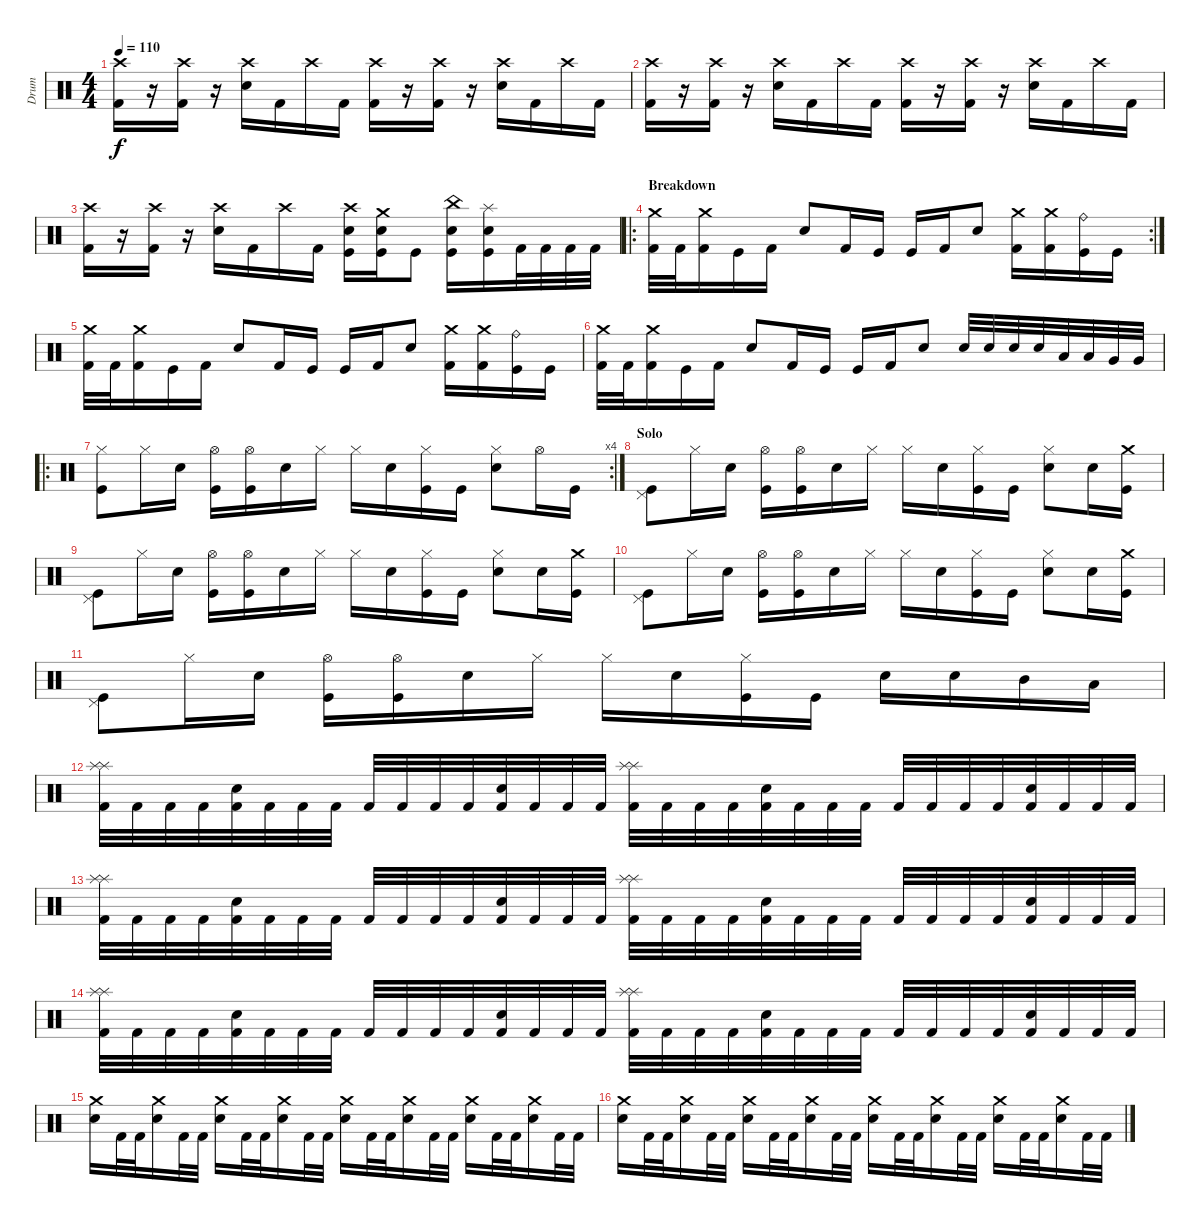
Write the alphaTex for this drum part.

\track ("Drum" "Drum") {instrument percussion}
\staff {score}
\articulation defaults
\ts (4 4)
\tempo 110
\clef neutral
\ks c
("Crash high (hit)" "Kick (hit) 2").16{dy f} r.16 ("Crash high (hit)" "Kick (hit) 2").16 r.16 ("Crash high (hit)" "Snare (hit) 2").16 "Kick (hit) 2".16 "Crash high (hit)".16 "Kick (hit) 2".16 ("Crash high (hit)" "Kick (hit) 2").16 r.16 ("Crash high (hit)" "Kick (hit) 2").16 r.16 ("Crash high (hit)" "Snare (hit) 2").16 "Kick (hit) 2".16 "Crash high (hit)".16 "Kick (hit) 2".16 |
("Crash high (hit)" "Kick (hit) 2").16 r.16 ("Crash high (hit)" "Kick (hit) 2").16 r.16 ("Crash high (hit)" "Snare (hit) 2").16 "Kick (hit) 2".16 "Crash high (hit)".16 "Kick (hit) 2".16 ("Crash high (hit)" "Kick (hit) 2").16 r.16 ("Crash high (hit)" "Kick (hit) 2").16 r.16 ("Crash high (hit)" "Snare (hit) 2").16 "Kick (hit) 2".16 "Crash high (hit)".16 "Kick (hit) 2".16 |
("Crash high (hit)" "Kick (hit) 2").16 r.16 ("Crash high (hit)" "Kick (hit) 2").16 r.16 ("Crash high (hit)" "Snare (hit) 2").16 "Kick (hit) 2".16 "Crash high (hit)".16 "Kick (hit) 2".16 ("Crash high (hit)" "Electric Snare (hit)" "Kick (hit)").16 ("Crash medium (hit)" "Electric Snare (hit)" "Kick (hit)").16 "Kick (hit)".8 ("China (hit)" "Electric Snare (hit)" "Kick (hit)").16 ("Splash (hit)" "Electric Snare (hit)" "Kick (hit)").16 "Kick (hit) 2".32 "Kick (hit) 2".32 "Kick (hit) 2".32 "Kick (hit) 2".32 |
\ro
\rc 2
\section ("" "Breakdown")
("Crash medium (hit)" "Kick (hit) 2").32 "Kick (hit) 2".32 ("Crash medium (hit)" "Kick (hit) 2").16 "Kick (hit)".16 "Kick (hit) 2".16 "Snare (hit) 2".8 "Kick (hit) 2".16 "Kick (hit)".16 "Kick (hit)".16 "Kick (hit) 2".16 "Snare (hit) 2".8 ("Crash medium (hit)" "Kick (hit) 2").16 ("Crash medium (hit)" "Kick (hit) 2").16 ("Ride (bell)" "Kick (hit)").16 "Kick (hit)".16 |
("Crash medium (hit)" "Kick (hit) 2").32 "Kick (hit) 2".32 ("Crash medium (hit)" "Kick (hit) 2").16 "Kick (hit)".16 "Kick (hit) 2".16 "Snare (hit) 2".8 "Kick (hit) 2".16 "Kick (hit)".16 "Kick (hit)".16 "Kick (hit) 2".16 "Snare (hit) 2".8 ("Crash medium (hit)" "Kick (hit) 2").16 ("Crash medium (hit)" "Kick (hit) 2").16 ("Ride (bell)" "Kick (hit)").16 "Kick (hit)".16 |
("Crash medium (hit)" "Kick (hit) 2").32 "Kick (hit) 2".32 ("Crash medium (hit)" "Kick (hit) 2").16 "Kick (hit)".16 "Kick (hit) 2".16 "Snare (hit) 2".8 "Kick (hit) 2".16 "Kick (hit)".16 "Kick (hit)".16 "Kick (hit) 2".16 "Snare (hit) 2".8 "Electric Snare (hit)".32 "Electric Snare (hit)".32 "Snare (hit) 2".32 "Snare (hit) 2".32 "Low Tom (hit)".32 "Low Tom (hit)".32 "Very Low Tom (hit)".32 "Very Low Tom (hit)".32 |
\ro
\rc 4
("Hi-Hat (closed)" "Kick (hit)").8 "Hi-Hat (closed)".16 "Electric Snare (hit)".16 ("Hi-Hat (open)" "Kick (hit)").16 ("Hi-Hat (open)" "Kick (hit)").16 "Electric Snare (hit)".16 "Hi-Hat (closed)".16 "Hi-Hat (closed)".16 "Electric Snare (hit)".16 ("Hi-Hat (closed)" "Kick (hit)").16 "Kick (hit)".16 ("Hi-Hat (closed)" "Electric Snare (hit)").8 "Hi-Hat (open)".16 "Kick (hit)".16 |
\section ("" "Solo")
("Pedal Hi-Hat (hit)" "Kick (hit)").8 "Hi-Hat (closed)".16 "Electric Snare (hit)".16 ("Hi-Hat (open)" "Kick (hit)").16 ("Hi-Hat (open)" "Kick (hit)").16 "Electric Snare (hit)".16 "Hi-Hat (closed)".16 "Hi-Hat (closed)".16 "Electric Snare (hit)".16 ("Hi-Hat (closed)" "Kick (hit)").16 "Kick (hit)".16 ("Hi-Hat (closed)" "Electric Snare (hit)").8 "Snare (hit) 2".16 ("Crash medium (hit)" "Kick (hit)").16 |
("Pedal Hi-Hat (hit)" "Kick (hit)").8 "Hi-Hat (closed)".16 "Electric Snare (hit)".16 ("Hi-Hat (open)" "Kick (hit)").16 ("Hi-Hat (open)" "Kick (hit)").16 "Electric Snare (hit)".16 "Hi-Hat (closed)".16 "Hi-Hat (closed)".16 "Electric Snare (hit)".16 ("Hi-Hat (closed)" "Kick (hit)").16 "Kick (hit)".16 ("Hi-Hat (closed)" "Electric Snare (hit)").8 "Snare (hit) 2".16 ("Crash medium (hit)" "Kick (hit)").16 |
("Pedal Hi-Hat (hit)" "Kick (hit)").8 "Hi-Hat (closed)".16 "Electric Snare (hit)".16 ("Hi-Hat (open)" "Kick (hit)").16 ("Hi-Hat (open)" "Kick (hit)").16 "Electric Snare (hit)".16 "Hi-Hat (closed)".16 "Hi-Hat (closed)".16 "Electric Snare (hit)".16 ("Hi-Hat (closed)" "Kick (hit)").16 "Kick (hit)".16 ("Hi-Hat (closed)" "Electric Snare (hit)").8 "Snare (hit) 2".16 ("Crash medium (hit)" "Kick (hit)").16 |
("Pedal Hi-Hat (hit)" "Kick (hit)").8 "Hi-Hat (closed)".16 "Electric Snare (hit)".16 ("Hi-Hat (open)" "Kick (hit)").16 ("Hi-Hat (open)" "Kick (hit)").16 "Electric Snare (hit)".16 "Hi-Hat (closed)".16 "Hi-Hat (closed)".16 "Electric Snare (hit)".16 ("Hi-Hat (closed)" "Kick (hit)").16 "Kick (hit)".16 "Electric Snare (hit)".16 "Snare (hit) 2".16 "Mid Tom (hit)".16 "Low Tom (hit)".16 |
("Kick (hit) 2" "Splash (hit)" "Splash (hit)").32 "Kick (hit) 2".32 "Kick (hit) 2".32 "Kick (hit) 2".32 ("Kick (hit) 2" "Electric Snare (hit)").32 "Kick (hit) 2".32 "Kick (hit) 2".32 "Kick (hit) 2".32 "Kick (hit) 2".32 "Kick (hit) 2".32 "Kick (hit) 2".32 "Kick (hit) 2".32 ("Kick (hit) 2" "Electric Snare (hit)").32 "Kick (hit) 2".32 "Kick (hit) 2".32 "Kick (hit) 2".32 ("Kick (hit) 2" "Splash (hit)" "Splash (hit)").32 "Kick (hit) 2".32 "Kick (hit) 2".32 "Kick (hit) 2".32 ("Kick (hit) 2" "Electric Snare (hit)").32 "Kick (hit) 2".32 "Kick (hit) 2".32 "Kick (hit) 2".32 "Kick (hit) 2".32 "Kick (hit) 2".32 "Kick (hit) 2".32 "Kick (hit) 2".32 ("Kick (hit) 2" "Electric Snare (hit)").32 "Kick (hit) 2".32 "Kick (hit) 2".32 "Kick (hit) 2".32 |
("Kick (hit) 2" "Splash (hit)" "Splash (hit)").32 "Kick (hit) 2".32 "Kick (hit) 2".32 "Kick (hit) 2".32 ("Kick (hit) 2" "Electric Snare (hit)").32 "Kick (hit) 2".32 "Kick (hit) 2".32 "Kick (hit) 2".32 "Kick (hit) 2".32 "Kick (hit) 2".32 "Kick (hit) 2".32 "Kick (hit) 2".32 ("Kick (hit) 2" "Electric Snare (hit)").32 "Kick (hit) 2".32 "Kick (hit) 2".32 "Kick (hit) 2".32 ("Kick (hit) 2" "Splash (hit)" "Splash (hit)").32 "Kick (hit) 2".32 "Kick (hit) 2".32 "Kick (hit) 2".32 ("Kick (hit) 2" "Electric Snare (hit)").32 "Kick (hit) 2".32 "Kick (hit) 2".32 "Kick (hit) 2".32 "Kick (hit) 2".32 "Kick (hit) 2".32 "Kick (hit) 2".32 "Kick (hit) 2".32 ("Kick (hit) 2" "Electric Snare (hit)").32 "Kick (hit) 2".32 "Kick (hit) 2".32 "Kick (hit) 2".32 |
("Kick (hit) 2" "Splash (hit)" "Splash (hit)").32 "Kick (hit) 2".32 "Kick (hit) 2".32 "Kick (hit) 2".32 ("Kick (hit) 2" "Electric Snare (hit)").32 "Kick (hit) 2".32 "Kick (hit) 2".32 "Kick (hit) 2".32 "Kick (hit) 2".32 "Kick (hit) 2".32 "Kick (hit) 2".32 "Kick (hit) 2".32 ("Kick (hit) 2" "Electric Snare (hit)").32 "Kick (hit) 2".32 "Kick (hit) 2".32 "Kick (hit) 2".32 ("Kick (hit) 2" "Splash (hit)" "Splash (hit)").32 "Kick (hit) 2".32 "Kick (hit) 2".32 "Kick (hit) 2".32 ("Kick (hit) 2" "Electric Snare (hit)").32 "Kick (hit) 2".32 "Kick (hit) 2".32 "Kick (hit) 2".32 "Kick (hit) 2".32 "Kick (hit) 2".32 "Kick (hit) 2".32 "Kick (hit) 2".32 ("Kick (hit) 2" "Electric Snare (hit)").32 "Kick (hit) 2".32 "Kick (hit) 2".32 "Kick (hit) 2".32 |
("Crash medium (hit)" "Snare (hit) 2").16 "Kick (hit) 2".32 "Kick (hit) 2".32 ("Crash medium (hit)" "Snare (hit) 2").16 "Kick (hit) 2".32 "Kick (hit) 2".32 ("Crash medium (hit)" "Snare (hit) 2").16 "Kick (hit) 2".32 "Kick (hit) 2".32 ("Crash medium (hit)" "Snare (hit) 2").16 "Kick (hit) 2".32 "Kick (hit) 2".32 ("Crash medium (hit)" "Snare (hit) 2").16 "Kick (hit) 2".32 "Kick (hit) 2".32 ("Crash medium (hit)" "Snare (hit) 2").16 "Kick (hit) 2".32 "Kick (hit) 2".32 ("Crash medium (hit)" "Snare (hit) 2").16 "Kick (hit) 2".32 "Kick (hit) 2".32 ("Crash medium (hit)" "Snare (hit) 2").16 "Kick (hit) 2".32 "Kick (hit) 2".32 |
("Crash medium (hit)" "Snare (hit) 2").16 "Kick (hit) 2".32 "Kick (hit) 2".32 ("Crash medium (hit)" "Snare (hit) 2").16 "Kick (hit) 2".32 "Kick (hit) 2".32 ("Crash medium (hit)" "Snare (hit) 2").16 "Kick (hit) 2".32 "Kick (hit) 2".32 ("Crash medium (hit)" "Snare (hit) 2").16 "Kick (hit) 2".32 "Kick (hit) 2".32 ("Crash medium (hit)" "Snare (hit) 2").16 "Kick (hit) 2".32 "Kick (hit) 2".32 ("Crash medium (hit)" "Snare (hit) 2").16 "Kick (hit) 2".32 "Kick (hit) 2".32 ("Crash medium (hit)" "Snare (hit) 2").16 "Kick (hit) 2".32 "Kick (hit) 2".32 ("Crash medium (hit)" "Snare (hit) 2").16 "Kick (hit) 2".32 "Kick (hit) 2".32
